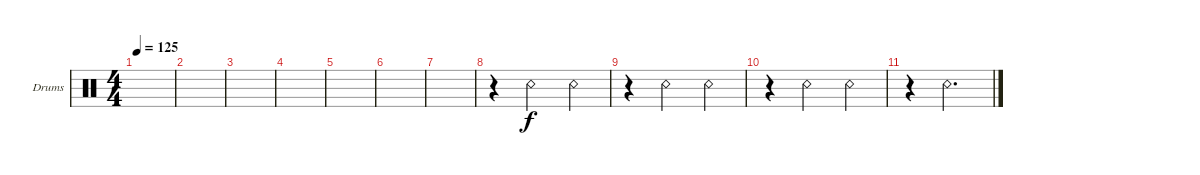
\defaultSystemsLayout 4
\bracketExtendMode groupsimilarinstruments
\firstSystemTrackNameOrientation horizontal
\otherSystemsTrackNameOrientation horizontal
\track ("Drumkit" "Drums") {instrument percussion}
\staff {score}
\articulation defaults
\ts (4 4)
\tempo 125
\clef neutral
\scale
0.333333
\ks c
|
\scale
0.333333 |
\scale
0.333333 |
\scale
0.333333 |
\scale
0.333333 |
\scale
0.333333 |
\scale
0.333333 |
\scale
0.333333 r.4 "Snare (rim shot)".2 "Snare (rim shot)".4 |
\scale
0.333333 r.4 "Snare (rim shot)".2 "Snare (rim shot)".4 |
\scale
0.333333 r.4 "Snare (rim shot)".2 "Snare (rim shot)".4 |
\scale
0.333333 r.4 "Snare (rim shot)".2{d} |
\scale
0.333333 |
\scale
0.333333 |
\scale
0.333333 |
\scale
0.333333 |
\scale
0.333333
